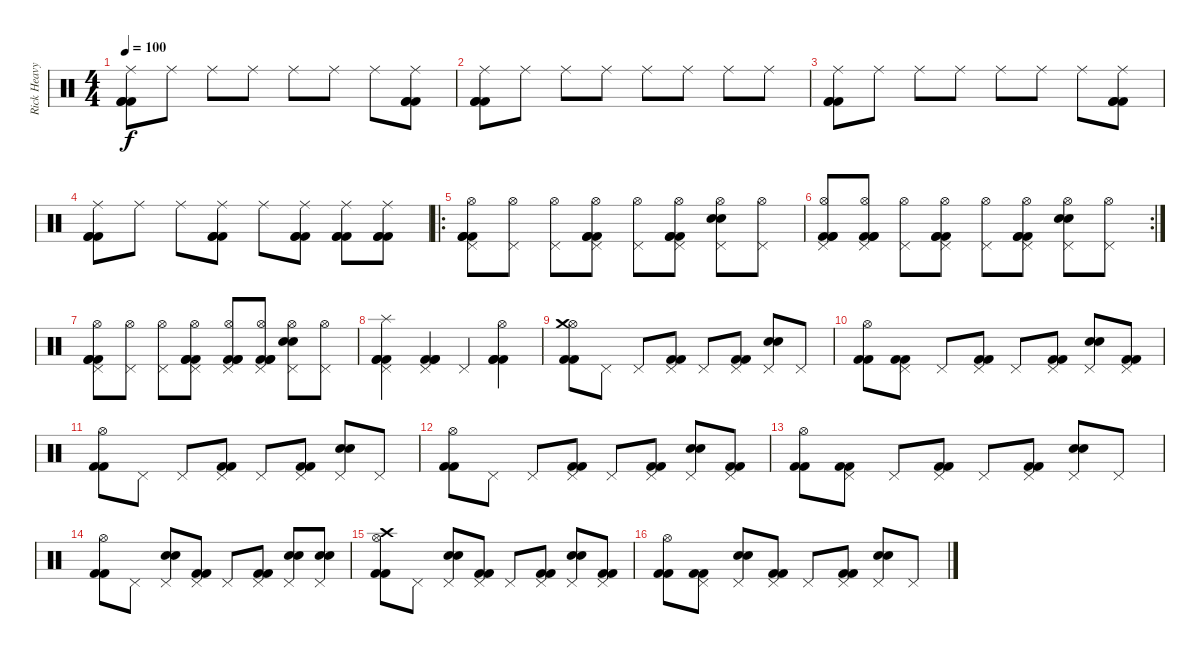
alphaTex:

\track ("Rick Heavy" "Rick Heavy") {instrument percussion}
\staff {score}
\articulation defaults
\ts (4 4)
\tempo 100
\clef neutral
\ks c
("Ride (middle)" "Kick (hit) 2" "Kick (hit) 2" "Kick (hit) 2").8{dy f} "Ride (middle)".8 "Ride (middle)".8 "Ride (middle)".8 "Ride (middle)".8 "Ride (middle)".8 "Ride (middle)".8 ("Ride (middle)" "Kick (hit) 2" "Kick (hit) 2" "Kick (hit) 2").8 |
("Ride (middle)" "Kick (hit) 2" "Kick (hit) 2" "Kick (hit) 2").8 "Ride (middle)".8 "Ride (middle)".8 "Ride (middle)".8 "Ride (middle)".8 "Ride (middle)".8 "Ride (middle)".8 "Ride (middle)".8 |
("Ride (middle)" "Kick (hit) 2" "Kick (hit) 2" "Kick (hit) 2").8 "Ride (middle)".8 "Ride (middle)".8 "Ride (middle)".8 "Ride (middle)".8 "Ride (middle)".8 "Ride (middle)".8 ("Ride (middle)" "Kick (hit) 2" "Kick (hit) 2" "Kick (hit) 2").8 |
("Ride (middle)" "Kick (hit) 2" "Kick (hit) 2" "Kick (hit) 2").8 "Ride (middle)".8 "Ride (middle)".8 ("Ride (middle)" "Kick (hit) 2" "Kick (hit) 2" "Kick (hit) 2").8 "Ride (middle)".8 ("Ride (middle)" "Kick (hit) 2" "Kick (hit) 2" "Kick (hit) 2").8 ("Ride (middle)" "Kick (hit) 2" "Kick (hit) 2" "Kick (hit) 2").8 ("Ride (middle)" "Kick (hit) 2" "Kick (hit) 2" "Kick (hit) 2").8 |
\ro
("Hi-Hat (open)" "Pedal Hi-Hat (hit)" "Kick (hit) 2" "Kick (hit) 2" "Kick (hit) 2").8 ("Hi-Hat (open)" "Pedal Hi-Hat (hit)").8 ("Hi-Hat (open)" "Pedal Hi-Hat (hit)").8 ("Hi-Hat (open)" "Pedal Hi-Hat (hit)" "Kick (hit) 2" "Kick (hit) 2" "Kick (hit) 2").8 ("Hi-Hat (open)" "Pedal Hi-Hat (hit)").8 ("Hi-Hat (open)" "Pedal Hi-Hat (hit)" "Kick (hit) 2" "Kick (hit) 2" "Kick (hit) 2").8 ("Hi-Hat (open)" "Pedal Hi-Hat (hit)" "Electric Snare (hit)" "Snare (hit) 2").8 ("Hi-Hat (open)" "Pedal Hi-Hat (hit)").8 |
\rc 2
("Hi-Hat (open)" "Pedal Hi-Hat (hit)" "Kick (hit) 2" "Kick (hit) 2" "Kick (hit) 2").8 ("Hi-Hat (open)" "Pedal Hi-Hat (hit)" "Kick (hit) 2" "Kick (hit) 2" "Kick (hit) 2").8 ("Hi-Hat (open)" "Pedal Hi-Hat (hit)").8 ("Hi-Hat (open)" "Pedal Hi-Hat (hit)" "Kick (hit) 2" "Kick (hit) 2" "Kick (hit) 2").8 ("Hi-Hat (open)" "Pedal Hi-Hat (hit)").8 ("Hi-Hat (open)" "Pedal Hi-Hat (hit)" "Kick (hit) 2" "Kick (hit) 2" "Kick (hit) 2").8 ("Hi-Hat (open)" "Pedal Hi-Hat (hit)" "Electric Snare (hit)" "Snare (hit) 2").8 ("Hi-Hat (open)" "Pedal Hi-Hat (hit)").8 |
("Hi-Hat (open)" "Pedal Hi-Hat (hit)" "Kick (hit) 2" "Kick (hit) 2" "Kick (hit) 2").8 ("Hi-Hat (open)" "Pedal Hi-Hat (hit)").8 ("Hi-Hat (open)" "Pedal Hi-Hat (hit)").8 ("Hi-Hat (open)" "Pedal Hi-Hat (hit)" "Kick (hit) 2" "Kick (hit) 2" "Kick (hit) 2").8 ("Hi-Hat (open)" "Pedal Hi-Hat (hit)" "Kick (hit) 2" "Kick (hit) 2" "Kick (hit) 2").8 ("Hi-Hat (open)" "Pedal Hi-Hat (hit)" "Kick (hit) 2" "Kick (hit) 2" "Kick (hit) 2").8 ("Hi-Hat (open)" "Pedal Hi-Hat (hit)" "Electric Snare (hit)" "Snare (hit) 2").8 ("Hi-Hat (open)" "Pedal Hi-Hat (hit)").8 |
("Pedal Hi-Hat (hit)" "Kick (hit) 2" "Splash (hit)" "Kick (hit) 2" "Kick (hit) 2").4 ("Pedal Hi-Hat (hit)" "Kick (hit) 2" "Kick (hit) 2" "Kick (hit) 2").4 "Pedal Hi-Hat (hit)".4 ("Hi-Hat (open)" "Kick (hit) 2" "Kick (hit) 2" "Kick (hit) 2").4 |
("Hi-Hat (open)" "Crash medium (hit)" "Kick (hit) 2" "Kick (hit) 2").8 "Pedal Hi-Hat (hit)".8 "Pedal Hi-Hat (hit)".8 ("Pedal Hi-Hat (hit)" "Kick (hit) 2" "Kick (hit) 2").8 "Pedal Hi-Hat (hit)".8 ("Pedal Hi-Hat (hit)" "Kick (hit) 2" "Kick (hit) 2").8 ("Pedal Hi-Hat (hit)" "Electric Snare (hit)" "Snare (hit) 2").8 "Pedal Hi-Hat (hit)".8 |
("Hi-Hat (open)" "Kick (hit) 2" "Kick (hit) 2").8 ("Pedal Hi-Hat (hit)" "Kick (hit) 2" "Kick (hit) 2").8 "Pedal Hi-Hat (hit)".8 ("Pedal Hi-Hat (hit)" "Kick (hit) 2" "Kick (hit) 2").8 "Pedal Hi-Hat (hit)".8 ("Pedal Hi-Hat (hit)" "Kick (hit) 2" "Kick (hit) 2").8 ("Pedal Hi-Hat (hit)" "Electric Snare (hit)" "Snare (hit) 2").8 ("Pedal Hi-Hat (hit)" "Kick (hit) 2" "Kick (hit) 2").8 |
("Hi-Hat (open)" "Kick (hit) 2" "Kick (hit) 2").8 "Pedal Hi-Hat (hit)".8 "Pedal Hi-Hat (hit)".8 ("Pedal Hi-Hat (hit)" "Kick (hit) 2" "Kick (hit) 2").8 "Pedal Hi-Hat (hit)".8 ("Pedal Hi-Hat (hit)" "Kick (hit) 2" "Kick (hit) 2").8 ("Pedal Hi-Hat (hit)" "Electric Snare (hit)" "Snare (hit) 2").8 "Pedal Hi-Hat (hit)".8 |
("Hi-Hat (open)" "Kick (hit) 2" "Kick (hit) 2").8 "Pedal Hi-Hat (hit)".8 "Pedal Hi-Hat (hit)".8 ("Pedal Hi-Hat (hit)" "Kick (hit) 2" "Kick (hit) 2").8 "Pedal Hi-Hat (hit)".8 ("Pedal Hi-Hat (hit)" "Kick (hit) 2" "Kick (hit) 2").8 ("Pedal Hi-Hat (hit)" "Electric Snare (hit)" "Snare (hit) 2").8 ("Pedal Hi-Hat (hit)" "Kick (hit) 2" "Kick (hit) 2").8 |
("Hi-Hat (open)" "Kick (hit) 2" "Kick (hit) 2").8 ("Pedal Hi-Hat (hit)" "Kick (hit) 2" "Kick (hit) 2").8 "Pedal Hi-Hat (hit)".8 ("Pedal Hi-Hat (hit)" "Kick (hit) 2" "Kick (hit) 2").8 "Pedal Hi-Hat (hit)".8 ("Pedal Hi-Hat (hit)" "Kick (hit) 2" "Kick (hit) 2").8 ("Pedal Hi-Hat (hit)" "Electric Snare (hit)" "Snare (hit) 2").8 "Pedal Hi-Hat (hit)".8 |
("Hi-Hat (open)" "Kick (hit) 2" "Kick (hit) 2").8 "Pedal Hi-Hat (hit)".8 ("Pedal Hi-Hat (hit)" "Electric Snare (hit)" "Snare (hit) 2").8 ("Pedal Hi-Hat (hit)" "Kick (hit) 2" "Kick (hit) 2").8 "Pedal Hi-Hat (hit)".8 ("Pedal Hi-Hat (hit)" "Kick (hit) 2" "Kick (hit) 2").8 ("Pedal Hi-Hat (hit)" "Electric Snare (hit)" "Snare (hit) 2").8 ("Pedal Hi-Hat (hit)" "Electric Snare (hit)" "Snare (hit) 2").8 |
("Hi-Hat (open)" "Crash high (hit)" "Kick (hit) 2" "Kick (hit) 2").8 "Pedal Hi-Hat (hit)".8 ("Pedal Hi-Hat (hit)" "Electric Snare (hit)" "Snare (hit) 2").8 ("Pedal Hi-Hat (hit)" "Kick (hit) 2" "Kick (hit) 2").8 "Pedal Hi-Hat (hit)".8 ("Pedal Hi-Hat (hit)" "Kick (hit) 2" "Kick (hit) 2").8 ("Pedal Hi-Hat (hit)" "Electric Snare (hit)" "Snare (hit) 2").8 ("Pedal Hi-Hat (hit)" "Kick (hit) 2" "Kick (hit) 2").8 |
("Hi-Hat (open)" "Kick (hit) 2" "Kick (hit) 2").8 ("Pedal Hi-Hat (hit)" "Kick (hit) 2" "Kick (hit) 2").8 ("Pedal Hi-Hat (hit)" "Electric Snare (hit)" "Snare (hit) 2").8 ("Pedal Hi-Hat (hit)" "Kick (hit) 2" "Kick (hit) 2").8 "Pedal Hi-Hat (hit)".8 ("Pedal Hi-Hat (hit)" "Kick (hit) 2" "Kick (hit) 2").8 ("Pedal Hi-Hat (hit)" "Electric Snare (hit)" "Snare (hit) 2").8 "Pedal Hi-Hat (hit)".8
